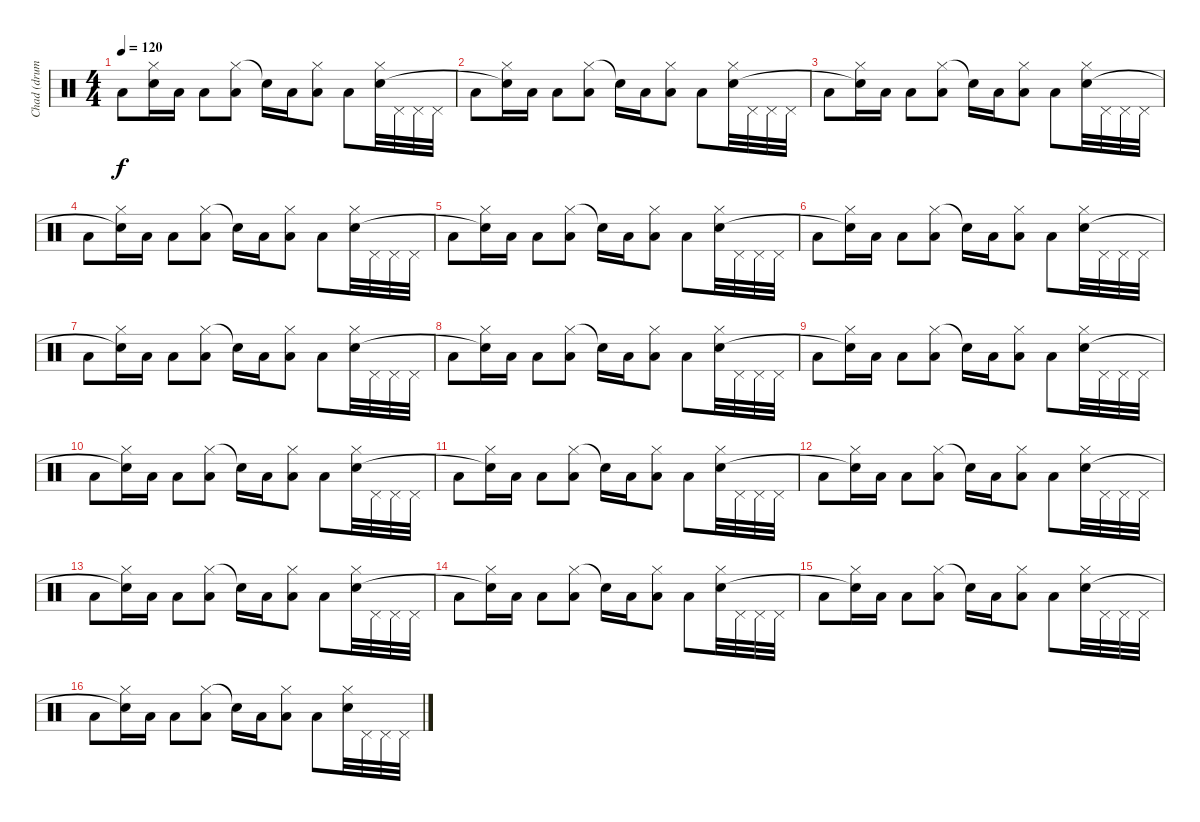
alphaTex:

\track ("Chad (drums)" "Chad (drum") {instrument percussion}
\staff {score}
\articulation defaults
\ts (4 4)
\tempo 120
\clef neutral
\ks c "Low Tom (hit)".8{dy f}
("Hi-Hat (closed)" "Snare (hit)"{t}).16 "Low Tom (hit)".16 "Low Floor Tom (hit)".8 ("Hi-Hat (closed)" "Low Tom (hit)").8 "Snare (hit)"{t}.16 "Low Tom (hit)".16 ("Hi-Hat (closed)" "Low Floor Tom (hit)").8 "Low Tom (hit)".8 ("Hi-Hat (closed)" "Snare (hit) 2").32 "Pedal Hi-Hat (hit)".32 "Pedal Hi-Hat (hit)".32 "Pedal Hi-Hat (hit)".32 |
"Low Tom (hit)".8 ("Hi-Hat (closed)" "Snare (hit)"{t}).16 "Low Tom (hit)".16 "Low Floor Tom (hit)".8 ("Hi-Hat (closed)" "Low Tom (hit)").8 "Snare (hit)"{t}.16 "Low Tom (hit)".16 ("Hi-Hat (closed)" "Low Floor Tom (hit)").8 "Low Tom (hit)".8 ("Hi-Hat (closed)" "Snare (hit) 2").32 "Pedal Hi-Hat (hit)".32 "Pedal Hi-Hat (hit)".32 "Pedal Hi-Hat (hit)".32 |
"Low Tom (hit)".8 ("Hi-Hat (closed)" "Snare (hit)"{t}).16 "Low Tom (hit)".16 "Low Floor Tom (hit)".8 ("Hi-Hat (closed)" "Low Tom (hit)").8 "Snare (hit)"{t}.16 "Low Tom (hit)".16 ("Hi-Hat (closed)" "Low Floor Tom (hit)").8 "Low Tom (hit)".8 ("Hi-Hat (closed)" "Snare (hit) 2").32 "Pedal Hi-Hat (hit)".32 "Pedal Hi-Hat (hit)".32 "Pedal Hi-Hat (hit)".32 |
"Low Tom (hit)".8 ("Hi-Hat (closed)" "Snare (hit)"{t}).16 "Low Tom (hit)".16 "Low Floor Tom (hit)".8 ("Hi-Hat (closed)" "Low Tom (hit)").8 "Snare (hit)"{t}.16 "Low Tom (hit)".16 ("Hi-Hat (closed)" "Low Floor Tom (hit)").8 "Low Tom (hit)".8 ("Hi-Hat (closed)" "Snare (hit) 2").32 "Pedal Hi-Hat (hit)".32 "Pedal Hi-Hat (hit)".32 "Pedal Hi-Hat (hit)".32 |
"Low Tom (hit)".8 ("Hi-Hat (closed)" "Snare (hit)"{t}).16 "Low Tom (hit)".16 "Low Floor Tom (hit)".8 ("Hi-Hat (closed)" "Low Tom (hit)").8 "Snare (hit)"{t}.16 "Low Tom (hit)".16 ("Hi-Hat (closed)" "Low Floor Tom (hit)").8 "Low Tom (hit)".8 ("Hi-Hat (closed)" "Snare (hit) 2").32 "Pedal Hi-Hat (hit)".32 "Pedal Hi-Hat (hit)".32 "Pedal Hi-Hat (hit)".32 |
"Low Tom (hit)".8 ("Hi-Hat (closed)" "Snare (hit)"{t}).16 "Low Tom (hit)".16 "Low Floor Tom (hit)".8 ("Hi-Hat (closed)" "Low Tom (hit)").8 "Snare (hit)"{t}.16 "Low Tom (hit)".16 ("Hi-Hat (closed)" "Low Floor Tom (hit)").8 "Low Tom (hit)".8 ("Hi-Hat (closed)" "Snare (hit) 2").32 "Pedal Hi-Hat (hit)".32 "Pedal Hi-Hat (hit)".32 "Pedal Hi-Hat (hit)".32 |
"Low Tom (hit)".8 ("Hi-Hat (closed)" "Snare (hit)"{t}).16 "Low Tom (hit)".16 "Low Floor Tom (hit)".8 ("Hi-Hat (closed)" "Low Tom (hit)").8 "Snare (hit)"{t}.16 "Low Tom (hit)".16 ("Hi-Hat (closed)" "Low Floor Tom (hit)").8 "Low Tom (hit)".8 ("Hi-Hat (closed)" "Snare (hit) 2").32 "Pedal Hi-Hat (hit)".32 "Pedal Hi-Hat (hit)".32 "Pedal Hi-Hat (hit)".32 |
"Low Tom (hit)".8 ("Hi-Hat (closed)" "Snare (hit)"{t}).16 "Low Tom (hit)".16 "Low Floor Tom (hit)".8 ("Hi-Hat (closed)" "Low Tom (hit)").8 "Snare (hit)"{t}.16 "Low Tom (hit)".16 ("Hi-Hat (closed)" "Low Floor Tom (hit)").8 "Low Tom (hit)".8 ("Hi-Hat (closed)" "Snare (hit) 2").32 "Pedal Hi-Hat (hit)".32 "Pedal Hi-Hat (hit)".32 "Pedal Hi-Hat (hit)".32 |
"Low Tom (hit)".8 ("Hi-Hat (closed)" "Snare (hit)"{t}).16 "Low Tom (hit)".16 "Low Floor Tom (hit)".8 ("Hi-Hat (closed)" "Low Tom (hit)").8 "Snare (hit)"{t}.16 "Low Tom (hit)".16 ("Hi-Hat (closed)" "Low Floor Tom (hit)").8 "Low Tom (hit)".8 ("Hi-Hat (closed)" "Snare (hit) 2").32 "Pedal Hi-Hat (hit)".32 "Pedal Hi-Hat (hit)".32 "Pedal Hi-Hat (hit)".32 |
"Low Tom (hit)".8 ("Hi-Hat (closed)" "Snare (hit)"{t}).16 "Low Tom (hit)".16 "Low Floor Tom (hit)".8 ("Hi-Hat (closed)" "Low Tom (hit)").8 "Snare (hit)"{t}.16 "Low Tom (hit)".16 ("Hi-Hat (closed)" "Low Floor Tom (hit)").8 "Low Tom (hit)".8 ("Hi-Hat (closed)" "Snare (hit) 2").32 "Pedal Hi-Hat (hit)".32 "Pedal Hi-Hat (hit)".32 "Pedal Hi-Hat (hit)".32 |
"Low Tom (hit)".8 ("Hi-Hat (closed)" "Snare (hit)"{t}).16 "Low Tom (hit)".16 "Low Floor Tom (hit)".8 ("Hi-Hat (closed)" "Low Tom (hit)").8 "Snare (hit)"{t}.16 "Low Tom (hit)".16 ("Hi-Hat (closed)" "Low Floor Tom (hit)").8 "Low Tom (hit)".8 ("Hi-Hat (closed)" "Snare (hit) 2").32 "Pedal Hi-Hat (hit)".32 "Pedal Hi-Hat (hit)".32 "Pedal Hi-Hat (hit)".32 |
"Low Tom (hit)".8 ("Hi-Hat (closed)" "Snare (hit)"{t}).16 "Low Tom (hit)".16 "Low Floor Tom (hit)".8 ("Hi-Hat (closed)" "Low Tom (hit)").8 "Snare (hit)"{t}.16 "Low Tom (hit)".16 ("Hi-Hat (closed)" "Low Floor Tom (hit)").8 "Low Tom (hit)".8 ("Hi-Hat (closed)" "Snare (hit) 2").32 "Pedal Hi-Hat (hit)".32 "Pedal Hi-Hat (hit)".32 "Pedal Hi-Hat (hit)".32 |
"Low Tom (hit)".8 ("Hi-Hat (closed)" "Snare (hit)"{t}).16 "Low Tom (hit)".16 "Low Floor Tom (hit)".8 ("Hi-Hat (closed)" "Low Tom (hit)").8 "Snare (hit)"{t}.16 "Low Tom (hit)".16 ("Hi-Hat (closed)" "Low Floor Tom (hit)").8 "Low Tom (hit)".8 ("Hi-Hat (closed)" "Snare (hit) 2").32 "Pedal Hi-Hat (hit)".32 "Pedal Hi-Hat (hit)".32 "Pedal Hi-Hat (hit)".32 |
"Low Tom (hit)".8 ("Hi-Hat (closed)" "Snare (hit)"{t}).16 "Low Tom (hit)".16 "Low Floor Tom (hit)".8 ("Hi-Hat (closed)" "Low Tom (hit)").8 "Snare (hit)"{t}.16 "Low Tom (hit)".16 ("Hi-Hat (closed)" "Low Floor Tom (hit)").8 "Low Tom (hit)".8 ("Hi-Hat (closed)" "Snare (hit) 2").32 "Pedal Hi-Hat (hit)".32 "Pedal Hi-Hat (hit)".32 "Pedal Hi-Hat (hit)".32 |
"Low Tom (hit)".8 ("Hi-Hat (closed)" "Snare (hit)"{t}).16 "Low Tom (hit)".16 "Low Floor Tom (hit)".8 ("Hi-Hat (closed)" "Low Tom (hit)").8 "Snare (hit)"{t}.16 "Low Tom (hit)".16 ("Hi-Hat (closed)" "Low Floor Tom (hit)").8 "Low Tom (hit)".8 ("Hi-Hat (closed)" "Snare (hit) 2").32 "Pedal Hi-Hat (hit)".32 "Pedal Hi-Hat (hit)".32 "Pedal Hi-Hat (hit)".32 |
"Low Tom (hit)".8 ("Hi-Hat (closed)" "Snare (hit)"{t}).16 "Low Tom (hit)".16 "Low Floor Tom (hit)".8 ("Hi-Hat (closed)" "Low Tom (hit)").8 "Snare (hit)"{t}.16 "Low Tom (hit)".16 ("Hi-Hat (closed)" "Low Floor Tom (hit)").8 "Low Tom (hit)".8 ("Hi-Hat (closed)" "Snare (hit) 2").32 "Pedal Hi-Hat (hit)".32 "Pedal Hi-Hat (hit)".32 "Pedal Hi-Hat (hit)".32
